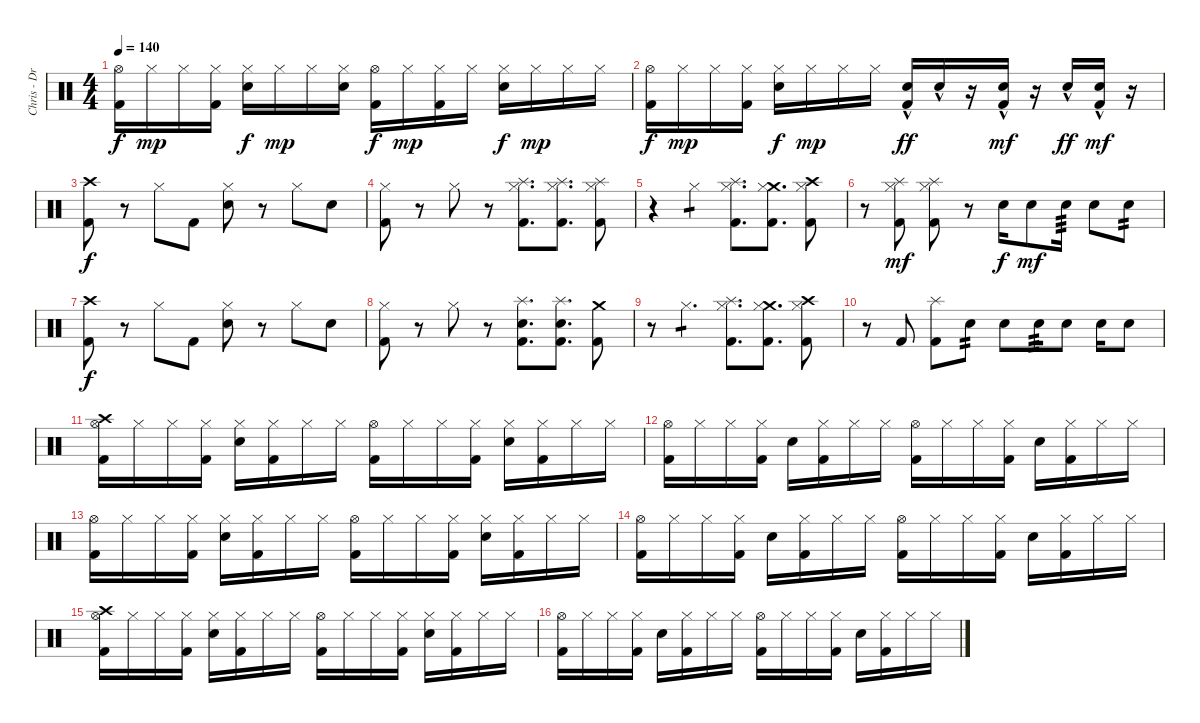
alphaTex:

\track ("Chris - Drums" "Chris - Dr") {instrument percussion}
\staff {score}
\articulation defaults
\ts (4 4)
\tempo 140
\clef neutral
\ks c
("Hi-Hat (open)" "Kick (hit) 2").16{dy f} "Hi-Hat (closed)".16{dy mp} "Hi-Hat (closed)".16 ("Hi-Hat (closed)" "Kick (hit) 2").16 ("Hi-Hat (closed)" "Electric Snare (hit)").16{dy f} "Hi-Hat (closed)".16{dy mp} "Hi-Hat (closed)".16 ("Hi-Hat (closed)" "Electric Snare (hit)").16 ("Hi-Hat (open)" "Kick (hit) 2").16{dy f} "Hi-Hat (closed)".16{dy mp} ("Hi-Hat (closed)" "Kick (hit) 2").16 "Hi-Hat (closed)".16 ("Hi-Hat (closed)" "Electric Snare (hit)").16{dy f} "Hi-Hat (closed)".16{dy mp} "Hi-Hat (closed)".16 "Hi-Hat (closed)".16 |
("Hi-Hat (open)" "Kick (hit) 2").16{dy f} "Hi-Hat (closed)".16{dy mp} "Hi-Hat (closed)".16 ("Hi-Hat (closed)" "Kick (hit) 2").16 ("Hi-Hat (closed)" "Electric Snare (hit)").16{dy f} "Hi-Hat (closed)".16{dy mp} "Hi-Hat (closed)".16 "Hi-Hat (closed)".16 ("Electric Snare (hit)"{hac} "Kick (hit) 2").16{dy ff} "Electric Snare (hit)"{hac}.16 r.16 ("Electric Snare (hit)"{hac} "Kick (hit) 2").16{dy mf} r.16 "Electric Snare (hit)"{hac}.16{dy ff} ("Electric Snare (hit)"{hac} "Kick (hit) 2").16{dy mf} r.16 |
("Crash high (hit)" "Kick (hit) 2").8{dy f} r.8 "Hi-Hat (closed)".8 "Kick (hit) 2".8 ("Hi-Hat (closed)" "Electric Snare (hit)").8 r.8 "Hi-Hat (closed)".8 "Electric Snare (hit)".8 |
("Hi-Hat (closed)" "Kick (hit) 2").8 r.8 "Hi-Hat (closed)".8 r.8 ("Splash (hit)" "Hi-Hat (closed)" "Kick (hit) 2").8{d} ("Splash (hit)" "Hi-Hat (closed)" "Kick (hit) 2").8{d} ("Splash (hit)" "Hi-Hat (closed)" "Kick (hit) 2").8 |
r.4 "Hi-Hat (closed)".4{tp 1} ("Splash (hit)" "Hi-Hat (closed)" "Kick (hit) 2").8{d} ("Crash medium (hit)" "Hi-Hat (closed)" "Kick (hit) 2").8{d} ("Crash high (hit)" "Hi-Hat (closed)" "Kick (hit) 2").8 |
r.8 ("Splash (hit)" "Hi-Hat (closed)" "Kick (hit) 2").8{dy mf} ("Splash (hit)" "Hi-Hat (closed)" "Kick (hit) 2").8 r.8 "Electric Snare (hit)".16{dy f} "Electric Snare (hit)".8{dy mf} "Electric Snare (hit)".16{tp 3} "Electric Snare (hit)".8 "Electric Snare (hit)".8{tp 2} |
("Crash high (hit)" "Kick (hit) 2").8{dy f} r.8 "Hi-Hat (closed)".8 "Kick (hit) 2".8 ("Hi-Hat (closed)" "Electric Snare (hit)").8 r.8 "Hi-Hat (closed)".8 "Electric Snare (hit)".8 |
("Hi-Hat (closed)" "Kick (hit) 2").8 r.8 "Hi-Hat (closed)".8 r.8 ("Splash (hit)" "Electric Snare (hit)" "Kick (hit) 2").8{d} ("Splash (hit)" "Electric Snare (hit)" "Kick (hit) 2").8{d} ("Crash medium (hit)" "Kick (hit) 2").8 |
r.8 "Hi-Hat (closed)".4{d tp 1} ("Splash (hit)" "Hi-Hat (closed)" "Kick (hit) 2").8{d} ("Crash medium (hit)" "Hi-Hat (closed)" "Kick (hit) 2").8{d} ("Crash high (hit)" "Hi-Hat (closed)" "Kick (hit) 2").8 |
r.8 "Kick (hit) 2".8 ("Splash (hit)" "Kick (hit) 2").8 "Electric Snare (hit)".8{tp 2} "Electric Snare (hit)".8 "Electric Snare (hit)".16{tp 3} "Electric Snare (hit)".8 "Electric Snare (hit)".16 "Electric Snare (hit)".8 |
("Crash high (hit)" "Hi-Hat (open)" "Kick (hit) 2").16 "Hi-Hat (closed)".16 "Hi-Hat (closed)".16 ("Hi-Hat (closed)" "Kick (hit) 2").16 ("Hi-Hat (closed)" "Electric Snare (hit)").16 ("Hi-Hat (closed)" "Kick (hit) 2").16 "Hi-Hat (closed)".16 "Hi-Hat (closed)".16 ("Hi-Hat (open)" "Kick (hit) 2").16 "Hi-Hat (closed)".16 "Hi-Hat (closed)".16 ("Hi-Hat (closed)" "Kick (hit) 2").16 ("Hi-Hat (closed)" "Electric Snare (hit)").16 ("Hi-Hat (closed)" "Kick (hit) 2").16 "Hi-Hat (closed)".16 "Hi-Hat (closed)".16 |
("Hi-Hat (open)" "Kick (hit) 2").16 "Hi-Hat (closed)".16 "Hi-Hat (closed)".16 ("Hi-Hat (closed)" "Kick (hit) 2").16 "Electric Snare (hit)".16 ("Hi-Hat (closed)" "Kick (hit) 2").16 "Hi-Hat (closed)".16 "Hi-Hat (closed)".16 ("Hi-Hat (open)" "Kick (hit) 2").16 "Hi-Hat (closed)".16 "Hi-Hat (closed)".16 ("Hi-Hat (closed)" "Kick (hit) 2").16 "Electric Snare (hit)".16 ("Hi-Hat (closed)" "Kick (hit) 2").16 "Hi-Hat (closed)".16 "Hi-Hat (closed)".16 |
("Hi-Hat (open)" "Kick (hit) 2").16 "Hi-Hat (closed)".16 "Hi-Hat (closed)".16 ("Hi-Hat (closed)" "Kick (hit) 2").16 ("Hi-Hat (closed)" "Electric Snare (hit)").16 ("Hi-Hat (closed)" "Kick (hit) 2").16 "Hi-Hat (closed)".16 "Hi-Hat (closed)".16 ("Hi-Hat (open)" "Kick (hit) 2").16 "Hi-Hat (closed)".16 "Hi-Hat (closed)".16 ("Hi-Hat (closed)" "Kick (hit) 2").16 ("Hi-Hat (closed)" "Electric Snare (hit)").16 ("Hi-Hat (closed)" "Kick (hit) 2").16 "Hi-Hat (closed)".16 "Hi-Hat (closed)".16 |
("Hi-Hat (open)" "Kick (hit) 2").16 "Hi-Hat (closed)".16 "Hi-Hat (closed)".16 ("Hi-Hat (closed)" "Kick (hit) 2").16 "Electric Snare (hit)".16 ("Hi-Hat (closed)" "Kick (hit) 2").16 "Hi-Hat (closed)".16 "Hi-Hat (closed)".16 ("Hi-Hat (open)" "Kick (hit) 2").16 "Hi-Hat (closed)".16 "Hi-Hat (closed)".16 ("Hi-Hat (closed)" "Kick (hit) 2").16 "Electric Snare (hit)".16 ("Hi-Hat (closed)" "Kick (hit) 2").16 "Hi-Hat (closed)".16 "Hi-Hat (closed)".16 |
("Crash high (hit)" "Hi-Hat (open)" "Kick (hit) 2").16 "Hi-Hat (closed)".16 "Hi-Hat (closed)".16 ("Hi-Hat (closed)" "Kick (hit) 2").16 ("Hi-Hat (closed)" "Electric Snare (hit)").16 ("Hi-Hat (closed)" "Kick (hit) 2").16 "Hi-Hat (closed)".16 "Hi-Hat (closed)".16 ("Hi-Hat (open)" "Kick (hit) 2").16 "Hi-Hat (closed)".16 "Hi-Hat (closed)".16 ("Hi-Hat (closed)" "Kick (hit) 2").16 ("Hi-Hat (closed)" "Electric Snare (hit)").16 ("Hi-Hat (closed)" "Kick (hit) 2").16 "Hi-Hat (closed)".16 "Hi-Hat (closed)".16 |
("Hi-Hat (open)" "Kick (hit) 2").16 "Hi-Hat (closed)".16 "Hi-Hat (closed)".16 ("Hi-Hat (closed)" "Kick (hit) 2").16 "Electric Snare (hit)".16 ("Hi-Hat (closed)" "Kick (hit) 2").16 "Hi-Hat (closed)".16 "Hi-Hat (closed)".16 ("Hi-Hat (open)" "Kick (hit) 2").16 "Hi-Hat (closed)".16 "Hi-Hat (closed)".16 ("Hi-Hat (closed)" "Kick (hit) 2").16 "Electric Snare (hit)".16 ("Hi-Hat (closed)" "Kick (hit) 2").16 "Hi-Hat (closed)".16 "Hi-Hat (closed)".16
